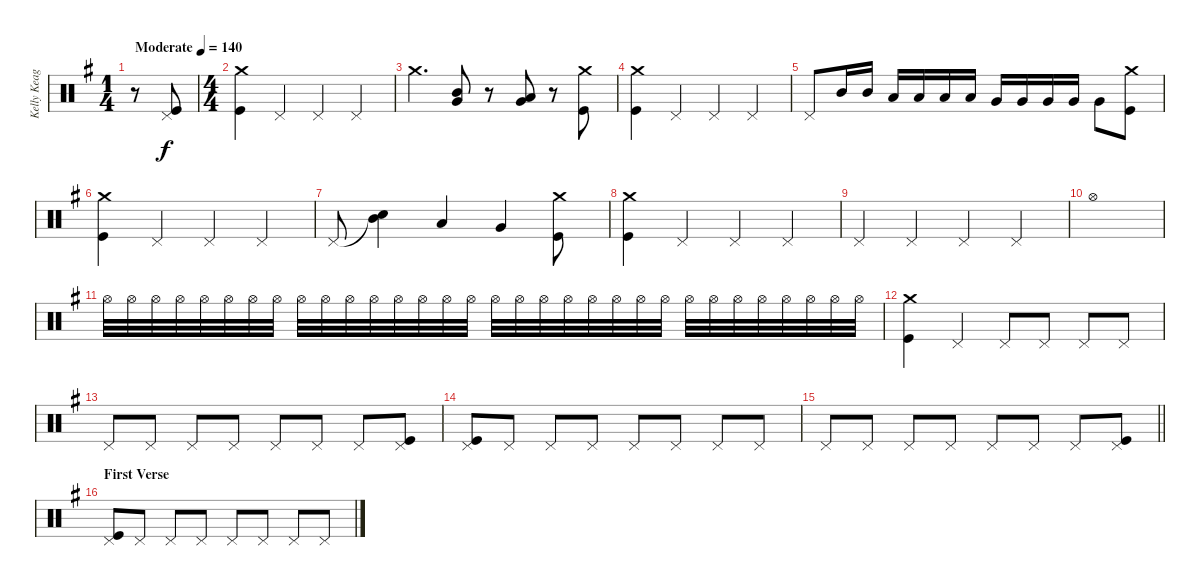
\track ("Kelly Keagy" "Kelly Keag") {instrument percussion}
\staff {score}
\articulation defaults
\ts (1 4)
\tempo (140 "Moderate")
\clef neutral
\ks g
r.8{dy f} ("Pedal Hi-Hat (hit)" "Kick (hit)").8 |
\ts (4 4)
("Crash medium (hit)" "Kick (hit)").4 "Pedal Hi-Hat (hit)".4 "Pedal Hi-Hat (hit)".4 "Pedal Hi-Hat (hit)".4 |
"Crash medium (hit)".4{d} ("Mid Tom (hit)" "Very Low Tom (hit)").8 r.8 ("Low Tom (hit)" "Very Low Tom (hit)").8 r.8 ("Crash medium (hit)" "Kick (hit)").8 |
("Crash medium (hit)" "Kick (hit)").4 "Pedal Hi-Hat (hit)".4 "Pedal Hi-Hat (hit)".4 "Pedal Hi-Hat (hit)".4 |
"Pedal Hi-Hat (hit)".8 "Mid Tom (hit)".16 "Mid Tom (hit)".16 "Low Tom (hit)".16 "Low Tom (hit)".16 "Low Tom (hit)".16 "Low Tom (hit)".16 "Very Low Tom (hit)".16 "Very Low Tom (hit)".16 "Very Low Tom (hit)".16 "Very Low Tom (hit)".16 "Very Low Tom (hit)".8 ("Crash medium (hit)" "Kick (hit)").8 |
("Crash medium (hit)" "Kick (hit)").4 "Pedal Hi-Hat (hit)".4 "Pedal Hi-Hat (hit)".4 "Pedal Hi-Hat (hit)".4 |
"Pedal Hi-Hat (hit)".8 ("Snare (hit)"{t} "Mid Tom (hit)").4 "Low Tom (hit)".4 "Very Low Tom (hit)".4 ("Crash medium (hit)" "Kick (hit)").8 |
("Crash medium (hit)" "Kick (hit)").4 "Pedal Hi-Hat (hit)".4 "Pedal Hi-Hat (hit)".4 "Pedal Hi-Hat (hit)".4 |
"Pedal Hi-Hat (hit)".4 "Pedal Hi-Hat (hit)".4 "Pedal Hi-Hat (hit)".4 "Pedal Hi-Hat (hit)".4 |
"Hi-Hat (open)".1 |
"Hi-Hat (open)".32{volume 0} "Hi-Hat (open)".32{volume 15} "Hi-Hat (open)".32 "Hi-Hat (open)".32 "Hi-Hat (open)".32 "Hi-Hat (open)".32 "Hi-Hat (open)".32 "Hi-Hat (open)".32 "Hi-Hat (open)".32 "Hi-Hat (open)".32 "Hi-Hat (open)".32 "Hi-Hat (open)".32 "Hi-Hat (open)".32 "Hi-Hat (open)".32 "Hi-Hat (open)".32 "Hi-Hat (open)".32 "Hi-Hat (open)".32 "Hi-Hat (open)".32 "Hi-Hat (open)".32 "Hi-Hat (open)".32 "Hi-Hat (open)".32 "Hi-Hat (open)".32 "Hi-Hat (open)".32 "Hi-Hat (open)".32 "Hi-Hat (open)".32 "Hi-Hat (open)".32 "Hi-Hat (open)".32 "Hi-Hat (open)".32 "Hi-Hat (open)".32 "Hi-Hat (open)".32 "Hi-Hat (open)".32 "Hi-Hat (open)".32 |
("Crash medium (hit)" "Kick (hit)").4 "Pedal Hi-Hat (hit)".4 "Pedal Hi-Hat (hit)".8 "Pedal Hi-Hat (hit)".8 "Pedal Hi-Hat (hit)".8 "Pedal Hi-Hat (hit)".8 |
"Pedal Hi-Hat (hit)".8 "Pedal Hi-Hat (hit)".8 "Pedal Hi-Hat (hit)".8 "Pedal Hi-Hat (hit)".8 "Pedal Hi-Hat (hit)".8 "Pedal Hi-Hat (hit)".8 "Pedal Hi-Hat (hit)".8 ("Pedal Hi-Hat (hit)" "Kick (hit)").8 |
("Pedal Hi-Hat (hit)" "Kick (hit)").8 "Pedal Hi-Hat (hit)".8 "Pedal Hi-Hat (hit)".8 "Pedal Hi-Hat (hit)".8 "Pedal Hi-Hat (hit)".8 "Pedal Hi-Hat (hit)".8 "Pedal Hi-Hat (hit)".8 "Pedal Hi-Hat (hit)".8 |
\barLineRight lightlight "Pedal Hi-Hat (hit)".8 "Pedal Hi-Hat (hit)".8 "Pedal Hi-Hat (hit)".8 "Pedal Hi-Hat (hit)".8 "Pedal Hi-Hat (hit)".8 "Pedal Hi-Hat (hit)".8 "Pedal Hi-Hat (hit)".8
("Pedal Hi-Hat (hit)" "Kick (hit)").8 |
\section ("" "First Verse")
("Pedal Hi-Hat (hit)" "Kick (hit)").8 "Pedal Hi-Hat (hit)".8 "Pedal Hi-Hat (hit)".8 "Pedal Hi-Hat (hit)".8 "Pedal Hi-Hat (hit)".8 "Pedal Hi-Hat (hit)".8 "Pedal Hi-Hat (hit)".8 "Pedal Hi-Hat (hit)".8
